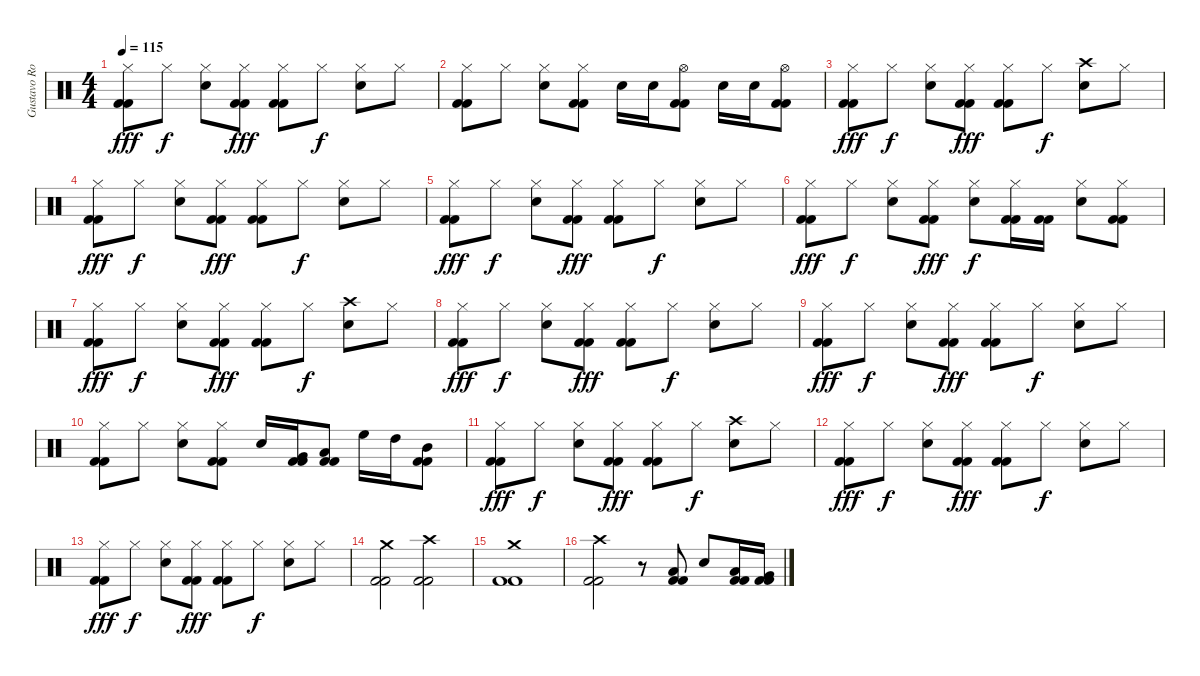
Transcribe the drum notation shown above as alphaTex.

\track ("Gustavo Rowek" "Gustavo Ro") {instrument percussion}
\staff {score}
\articulation defaults
\ts (4 4)
\tempo 115
\clef neutral
\ks c
("Kick (hit) 2" "Kick (hit) 2" "Hi-Hat (closed)").8{dy fff} "Hi-Hat (closed)".8{dy f} ("Snare (hit) 2" "Hi-Hat (closed)").8 ("Kick (hit) 2" "Kick (hit) 2" "Hi-Hat (closed)").8{dy fff} ("Kick (hit) 2" "Kick (hit) 2" "Hi-Hat (closed)").8 "Hi-Hat (closed)".8{dy f} ("Snare (hit) 2" "Hi-Hat (closed)").8 "Hi-Hat (closed)".8 |
("Kick (hit) 2" "Kick (hit) 2" "Hi-Hat (closed)").8 "Hi-Hat (closed)".8 ("Snare (hit) 2" "Hi-Hat (closed)").8 ("Kick (hit) 2" "Kick (hit) 2" "Hi-Hat (closed)").8 "Snare (hit) 2".16 "Snare (hit) 2".16 ("Kick (hit) 2" "Kick (hit) 2" "Hi-Hat (open)").8 "Snare (hit) 2".16 "Snare (hit) 2".16 ("Kick (hit) 2" "Kick (hit) 2" "Hi-Hat (open)").8 |
("Kick (hit) 2" "Kick (hit) 2" "Hi-Hat (closed)").8{dy fff} "Hi-Hat (closed)".8{dy f} ("Snare (hit) 2" "Hi-Hat (closed)").8 ("Kick (hit) 2" "Kick (hit) 2" "Hi-Hat (closed)").8{dy fff} ("Kick (hit) 2" "Kick (hit) 2" "Hi-Hat (closed)").8 "Hi-Hat (closed)".8{dy f} ("Snare (hit) 2" "Crash high (hit)").8 "Hi-Hat (closed)".8 |
("Kick (hit) 2" "Kick (hit) 2" "Hi-Hat (closed)").8{dy fff} "Hi-Hat (closed)".8{dy f} ("Snare (hit) 2" "Hi-Hat (closed)").8 ("Kick (hit) 2" "Kick (hit) 2" "Hi-Hat (closed)").8{dy fff} ("Kick (hit) 2" "Kick (hit) 2" "Hi-Hat (closed)").8 "Hi-Hat (closed)".8{dy f} ("Snare (hit) 2" "Hi-Hat (closed)").8 "Hi-Hat (closed)".8 |
("Kick (hit) 2" "Kick (hit) 2" "Hi-Hat (closed)").8{dy fff} "Hi-Hat (closed)".8{dy f} ("Snare (hit) 2" "Hi-Hat (closed)").8 ("Kick (hit) 2" "Kick (hit) 2" "Hi-Hat (closed)").8{dy fff} ("Kick (hit) 2" "Kick (hit) 2" "Hi-Hat (closed)").8 "Hi-Hat (closed)".8{dy f} ("Snare (hit) 2" "Hi-Hat (closed)").8 "Hi-Hat (closed)".8 |
("Kick (hit) 2" "Kick (hit) 2" "Hi-Hat (closed)").8{dy fff} "Hi-Hat (closed)".8{dy f} ("Snare (hit) 2" "Hi-Hat (closed)").8 ("Kick (hit) 2" "Kick (hit) 2" "Hi-Hat (closed)").8{dy fff} ("Snare (hit) 2" "Hi-Hat (closed)").8{dy f} ("Kick (hit) 2" "Kick (hit) 2" "Hi-Hat (closed)").16 ("Kick (hit) 2" "Kick (hit) 2").16 ("Snare (hit) 2" "Hi-Hat (closed)").8 ("Kick (hit) 2" "Kick (hit) 2" "Hi-Hat (closed)").8 |
("Kick (hit) 2" "Kick (hit) 2" "Hi-Hat (closed)").8{dy fff} "Hi-Hat (closed)".8{dy f} ("Snare (hit) 2" "Hi-Hat (closed)").8 ("Kick (hit) 2" "Kick (hit) 2" "Hi-Hat (closed)").8{dy fff} ("Kick (hit) 2" "Kick (hit) 2" "Hi-Hat (closed)").8 "Hi-Hat (closed)".8{dy f} ("Snare (hit) 2" "Crash high (hit)").8 "Hi-Hat (closed)".8 |
("Kick (hit) 2" "Kick (hit) 2" "Hi-Hat (closed)").8{dy fff} "Hi-Hat (closed)".8{dy f} ("Snare (hit) 2" "Hi-Hat (closed)").8 ("Kick (hit) 2" "Kick (hit) 2" "Hi-Hat (closed)").8{dy fff} ("Kick (hit) 2" "Kick (hit) 2" "Hi-Hat (closed)").8 "Hi-Hat (closed)".8{dy f} ("Snare (hit) 2" "Hi-Hat (closed)").8 "Hi-Hat (closed)".8 |
("Kick (hit) 2" "Kick (hit) 2" "Hi-Hat (closed)").8{dy fff} "Hi-Hat (closed)".8{dy f} ("Snare (hit) 2" "Hi-Hat (closed)").8 ("Kick (hit) 2" "Kick (hit) 2" "Hi-Hat (closed)").8{dy fff} ("Kick (hit) 2" "Kick (hit) 2" "Hi-Hat (closed)").8 "Hi-Hat (closed)".8{dy f} ("Snare (hit) 2" "Hi-Hat (closed)").8 "Hi-Hat (closed)".8 |
("Kick (hit) 2" "Kick (hit) 2" "Hi-Hat (closed)").8 "Hi-Hat (closed)".8 ("Snare (hit) 2" "Hi-Hat (closed)").8 ("Kick (hit) 2" "Kick (hit) 2" "Hi-Hat (closed)").8 "Snare (hit) 2".16 ("Kick (hit) 2" "Kick (hit) 2" "Very Low Tom (hit)").16 ("Kick (hit) 2" "Kick (hit) 2" "Low Floor Tom (hit)").8 "High Floor Tom (hit)".16 "High Tom (hit)".16 ("Kick (hit) 2" "Kick (hit) 2" "Mid Tom (hit)").8 |
("Kick (hit) 2" "Kick (hit) 2" "Hi-Hat (closed)").8{dy fff} "Hi-Hat (closed)".8{dy f} ("Snare (hit) 2" "Hi-Hat (closed)").8 ("Kick (hit) 2" "Kick (hit) 2" "Hi-Hat (closed)").8{dy fff} ("Kick (hit) 2" "Kick (hit) 2" "Hi-Hat (closed)").8 "Hi-Hat (closed)".8{dy f} ("Snare (hit) 2" "Crash high (hit)").8 "Hi-Hat (closed)".8 |
("Kick (hit) 2" "Kick (hit) 2" "Hi-Hat (closed)").8{dy fff} "Hi-Hat (closed)".8{dy f} ("Snare (hit) 2" "Hi-Hat (closed)").8 ("Kick (hit) 2" "Kick (hit) 2" "Hi-Hat (closed)").8{dy fff} ("Kick (hit) 2" "Kick (hit) 2" "Hi-Hat (closed)").8 "Hi-Hat (closed)".8{dy f} ("Snare (hit) 2" "Hi-Hat (closed)").8 "Hi-Hat (closed)".8 |
("Kick (hit) 2" "Kick (hit) 2" "Hi-Hat (closed)").8{dy fff} "Hi-Hat (closed)".8{dy f} ("Snare (hit) 2" "Hi-Hat (closed)").8 ("Kick (hit) 2" "Kick (hit) 2" "Hi-Hat (closed)").8{dy fff} ("Kick (hit) 2" "Kick (hit) 2" "Hi-Hat (closed)").8 "Hi-Hat (closed)".8{dy f} ("Snare (hit) 2" "Hi-Hat (closed)").8 "Hi-Hat (closed)".8 |
("Kick (hit) 2" "Kick (hit) 2" "Crash medium (hit)").2 ("Kick (hit) 2" "Kick (hit) 2" "Crash high (hit)").2 |
("Kick (hit) 2" "Kick (hit) 2" "Crash medium (hit)").1 |
("Kick (hit) 2" "Kick (hit) 2" "Crash high (hit)").2 r.8 ("Kick (hit) 2" "Kick (hit) 2" "Low Floor Tom (hit)").8 "Snare (hit) 2".8 ("Kick (hit) 2" "Kick (hit) 2" "Low Floor Tom (hit)").16 ("Kick (hit) 2" "Kick (hit) 2" "Very Low Tom (hit)").16
